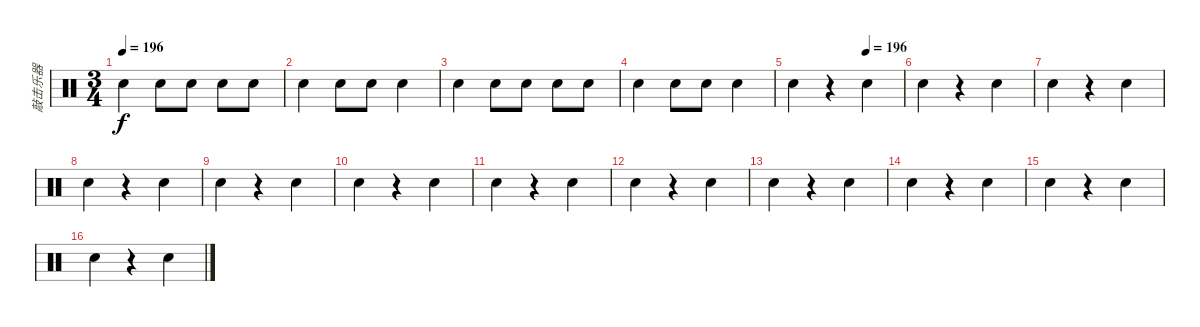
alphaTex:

\track ("敲击乐器" "敲击乐器") {instrument percussion}
\staff {score}
\articulation defaults
\ts (3 4)
\tempo 196
\clef neutral
\ks c "Snare (hit) 2".4{dy f} "Snare (hit) 2".8 "Snare (hit) 2".8 "Snare (hit) 2".8 "Snare (hit) 2".8
|
"Snare (hit) 2".4 "Snare (hit) 2".8 "Snare (hit) 2".8 "Snare (hit) 2".4 |
"Snare (hit) 2".4 "Snare (hit) 2".8 "Snare (hit) 2".8 "Snare (hit) 2".8 "Snare (hit) 2".8 |
"Snare (hit) 2".4 "Snare (hit) 2".8 "Snare (hit) 2".8 "Snare (hit) 2".4 |
\tempo (196 0.6666666666666666)
"Snare (hit) 2".4 r.4 "Snare (hit) 2".4 |
"Snare (hit) 2".4 r.4 "Snare (hit) 2".4 |
"Snare (hit) 2".4 r.4 "Snare (hit) 2".4 |
"Snare (hit) 2".4 r.4 "Snare (hit) 2".4 |
"Snare (hit) 2".4 r.4 "Snare (hit) 2".4 |
"Snare (hit) 2".4 r.4 "Snare (hit) 2".4 |
"Snare (hit) 2".4 r.4 "Snare (hit) 2".4 |
"Snare (hit) 2".4 r.4 "Snare (hit) 2".4 |
"Snare (hit) 2".4 r.4 "Snare (hit) 2".4 |
"Snare (hit) 2".4 r.4 "Snare (hit) 2".4 |
"Snare (hit) 2".4 r.4 "Snare (hit) 2".4 |
"Snare (hit) 2".4 r.4 "Snare (hit) 2".4
